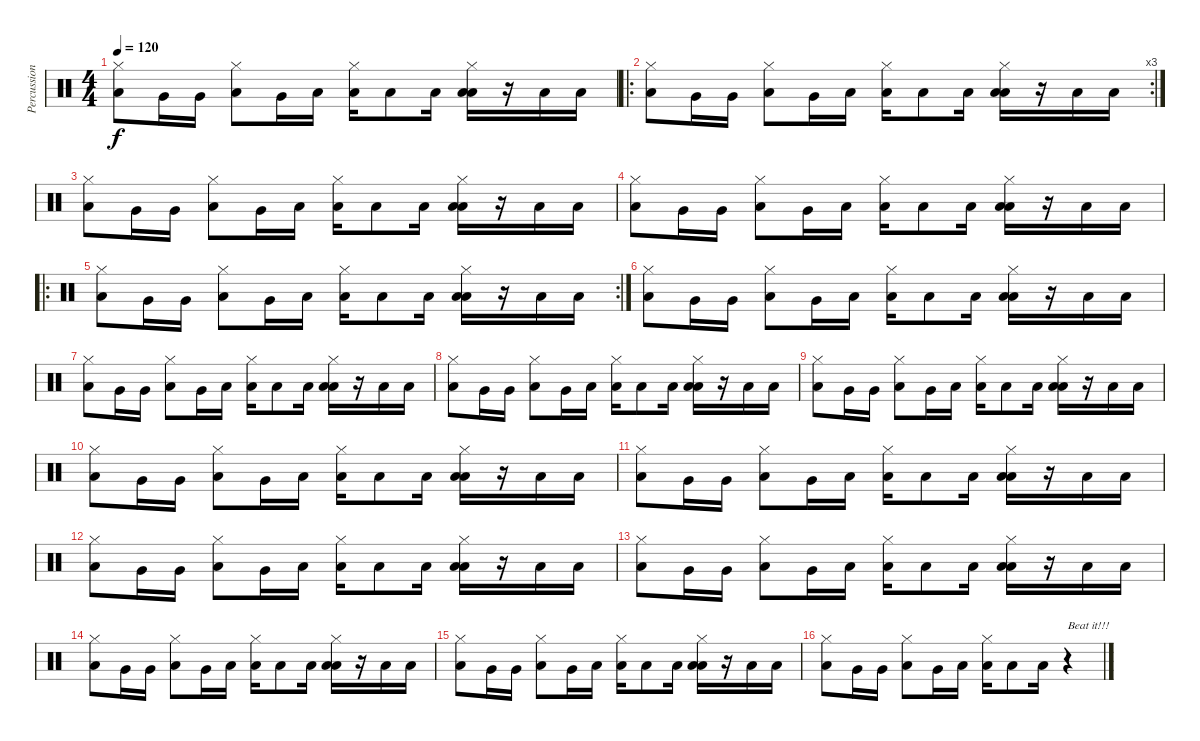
\track ("Percussion" "Percussion") {instrument percussion}
\staff {score}
\articulation defaults
\ts (4 4)
\tempo 120
\clef neutral
\ks c
("Hi-Hat (closed)" "Low Floor Tom (hit)").8{dy f} "Very Low Tom (hit)".16 "Very Low Tom (hit)".16 ("Hi-Hat (closed)" "Low Floor Tom (hit)").8 "Very Low Tom (hit)".16 "Low Tom (hit)".16 ("Hi-Hat (closed)" "Low Floor Tom (hit)").16 "Low Tom (hit)".8 "Low Tom (hit)".16 ("Low Tom (hit)" "Hi-Hat (closed)" "Low Floor Tom (hit)").16 r.16 "Low Tom (hit)".16 "Low Tom (hit)".16 |
\ro
\rc 3
("Hi-Hat (closed)" "Low Floor Tom (hit)").8 "Very Low Tom (hit)".16 "Very Low Tom (hit)".16 ("Hi-Hat (closed)" "Low Floor Tom (hit)").8 "Very Low Tom (hit)".16 "Low Tom (hit)".16 ("Hi-Hat (closed)" "Low Floor Tom (hit)").16 "Low Tom (hit)".8 "Low Tom (hit)".16 ("Low Tom (hit)" "Hi-Hat (closed)" "Low Floor Tom (hit)").16 r.16 "Low Tom (hit)".16 "Low Tom (hit)".16 |
("Hi-Hat (closed)" "Low Floor Tom (hit)").8 "Very Low Tom (hit)".16 "Very Low Tom (hit)".16 ("Hi-Hat (closed)" "Low Floor Tom (hit)").8 "Very Low Tom (hit)".16 "Low Tom (hit)".16 ("Hi-Hat (closed)" "Low Floor Tom (hit)").16 "Low Tom (hit)".8 "Low Tom (hit)".16 ("Low Tom (hit)" "Hi-Hat (closed)" "Low Floor Tom (hit)").16 r.16 "Low Tom (hit)".16 "Low Tom (hit)".16 |
("Hi-Hat (closed)" "Low Floor Tom (hit)").8 "Very Low Tom (hit)".16 "Very Low Tom (hit)".16 ("Hi-Hat (closed)" "Low Floor Tom (hit)").8 "Very Low Tom (hit)".16 "Low Tom (hit)".16 ("Hi-Hat (closed)" "Low Floor Tom (hit)").16 "Low Tom (hit)".8 "Low Tom (hit)".16 ("Low Tom (hit)" "Hi-Hat (closed)" "Low Floor Tom (hit)").16 r.16 "Low Tom (hit)".16 "Low Tom (hit)".16 |
\ro
\rc 2
("Hi-Hat (closed)" "Low Floor Tom (hit)").8 "Very Low Tom (hit)".16 "Very Low Tom (hit)".16 ("Hi-Hat (closed)" "Low Floor Tom (hit)").8 "Very Low Tom (hit)".16 "Low Tom (hit)".16 ("Hi-Hat (closed)" "Low Floor Tom (hit)").16 "Low Tom (hit)".8 "Low Tom (hit)".16 ("Low Tom (hit)" "Hi-Hat (closed)" "Low Floor Tom (hit)").16 r.16 "Low Tom (hit)".16 "Low Tom (hit)".16 |
("Hi-Hat (closed)" "Low Floor Tom (hit)").8 "Very Low Tom (hit)".16 "Very Low Tom (hit)".16 ("Hi-Hat (closed)" "Low Floor Tom (hit)").8 "Very Low Tom (hit)".16 "Low Tom (hit)".16 ("Hi-Hat (closed)" "Low Floor Tom (hit)").16 "Low Tom (hit)".8 "Low Tom (hit)".16 ("Low Tom (hit)" "Hi-Hat (closed)" "Low Floor Tom (hit)").16 r.16 "Low Tom (hit)".16 "Low Tom (hit)".16 |
("Hi-Hat (closed)" "Low Floor Tom (hit)").8 "Very Low Tom (hit)".16 "Very Low Tom (hit)".16 ("Hi-Hat (closed)" "Low Floor Tom (hit)").8 "Very Low Tom (hit)".16 "Low Tom (hit)".16 ("Hi-Hat (closed)" "Low Floor Tom (hit)").16 "Low Tom (hit)".8 "Low Tom (hit)".16 ("Low Tom (hit)" "Hi-Hat (closed)" "Low Floor Tom (hit)").16 r.16 "Low Tom (hit)".16 "Low Tom (hit)".16 |
("Hi-Hat (closed)" "Low Floor Tom (hit)").8 "Very Low Tom (hit)".16 "Very Low Tom (hit)".16 ("Hi-Hat (closed)" "Low Floor Tom (hit)").8 "Very Low Tom (hit)".16 "Low Tom (hit)".16 ("Hi-Hat (closed)" "Low Floor Tom (hit)").16 "Low Tom (hit)".8 "Low Tom (hit)".16 ("Low Tom (hit)" "Hi-Hat (closed)" "Low Floor Tom (hit)").16 r.16 "Low Tom (hit)".16 "Low Tom (hit)".16 |
("Hi-Hat (closed)" "Low Floor Tom (hit)").8 "Very Low Tom (hit)".16 "Very Low Tom (hit)".16 ("Hi-Hat (closed)" "Low Floor Tom (hit)").8 "Very Low Tom (hit)".16 "Low Tom (hit)".16 ("Hi-Hat (closed)" "Low Floor Tom (hit)").16 "Low Tom (hit)".8 "Low Tom (hit)".16 ("Low Tom (hit)" "Hi-Hat (closed)" "Low Floor Tom (hit)").16 r.16 "Low Tom (hit)".16 "Low Tom (hit)".16 |
("Hi-Hat (closed)" "Low Floor Tom (hit)").8 "Very Low Tom (hit)".16 "Very Low Tom (hit)".16 ("Hi-Hat (closed)" "Low Floor Tom (hit)").8 "Very Low Tom (hit)".16 "Low Tom (hit)".16 ("Hi-Hat (closed)" "Low Floor Tom (hit)").16 "Low Tom (hit)".8 "Low Tom (hit)".16 ("Low Tom (hit)" "Hi-Hat (closed)" "Low Floor Tom (hit)").16 r.16 "Low Tom (hit)".16 "Low Tom (hit)".16 |
("Hi-Hat (closed)" "Low Floor Tom (hit)").8 "Very Low Tom (hit)".16 "Very Low Tom (hit)".16 ("Hi-Hat (closed)" "Low Floor Tom (hit)").8 "Very Low Tom (hit)".16 "Low Tom (hit)".16 ("Hi-Hat (closed)" "Low Floor Tom (hit)").16 "Low Tom (hit)".8 "Low Tom (hit)".16 ("Low Tom (hit)" "Hi-Hat (closed)" "Low Floor Tom (hit)").16 r.16 "Low Tom (hit)".16 "Low Tom (hit)".16 |
("Hi-Hat (closed)" "Low Floor Tom (hit)").8 "Very Low Tom (hit)".16 "Very Low Tom (hit)".16 ("Hi-Hat (closed)" "Low Floor Tom (hit)").8 "Very Low Tom (hit)".16 "Low Tom (hit)".16 ("Hi-Hat (closed)" "Low Floor Tom (hit)").16 "Low Tom (hit)".8 "Low Tom (hit)".16 ("Low Tom (hit)" "Hi-Hat (closed)" "Low Floor Tom (hit)").16 r.16 "Low Tom (hit)".16 "Low Tom (hit)".16 |
("Hi-Hat (closed)" "Low Floor Tom (hit)").8 "Very Low Tom (hit)".16 "Very Low Tom (hit)".16 ("Hi-Hat (closed)" "Low Floor Tom (hit)").8 "Very Low Tom (hit)".16 "Low Tom (hit)".16 ("Hi-Hat (closed)" "Low Floor Tom (hit)").16 "Low Tom (hit)".8 "Low Tom (hit)".16 ("Low Tom (hit)" "Hi-Hat (closed)" "Low Floor Tom (hit)").16 r.16 "Low Tom (hit)".16 "Low Tom (hit)".16 |
("Hi-Hat (closed)" "Low Floor Tom (hit)").8 "Very Low Tom (hit)".16 "Very Low Tom (hit)".16 ("Hi-Hat (closed)" "Low Floor Tom (hit)").8 "Very Low Tom (hit)".16 "Low Tom (hit)".16 ("Hi-Hat (closed)" "Low Floor Tom (hit)").16 "Low Tom (hit)".8 "Low Tom (hit)".16 ("Low Tom (hit)" "Hi-Hat (closed)" "Low Floor Tom (hit)").16 r.16 "Low Tom (hit)".16 "Low Tom (hit)".16 |
("Hi-Hat (closed)" "Low Floor Tom (hit)").8 "Very Low Tom (hit)".16 "Very Low Tom (hit)".16 ("Hi-Hat (closed)" "Low Floor Tom (hit)").8 "Very Low Tom (hit)".16 "Low Tom (hit)".16 ("Hi-Hat (closed)" "Low Floor Tom (hit)").16 "Low Tom (hit)".8 "Low Tom (hit)".16 ("Low Tom (hit)" "Hi-Hat (closed)" "Low Floor Tom (hit)").16 r.16 "Low Tom (hit)".16 "Low Tom (hit)".16 |
("Hi-Hat (closed)" "Low Floor Tom (hit)").8 "Very Low Tom (hit)".16 "Very Low Tom (hit)".16 ("Hi-Hat (closed)" "Low Floor Tom (hit)").8 "Very Low Tom (hit)".16 "Low Tom (hit)".16 ("Hi-Hat (closed)" "Low Floor Tom (hit)").16 "Low Tom (hit)".8 "Low Tom (hit)".16 r.4{txt "Beat it!!!"}
